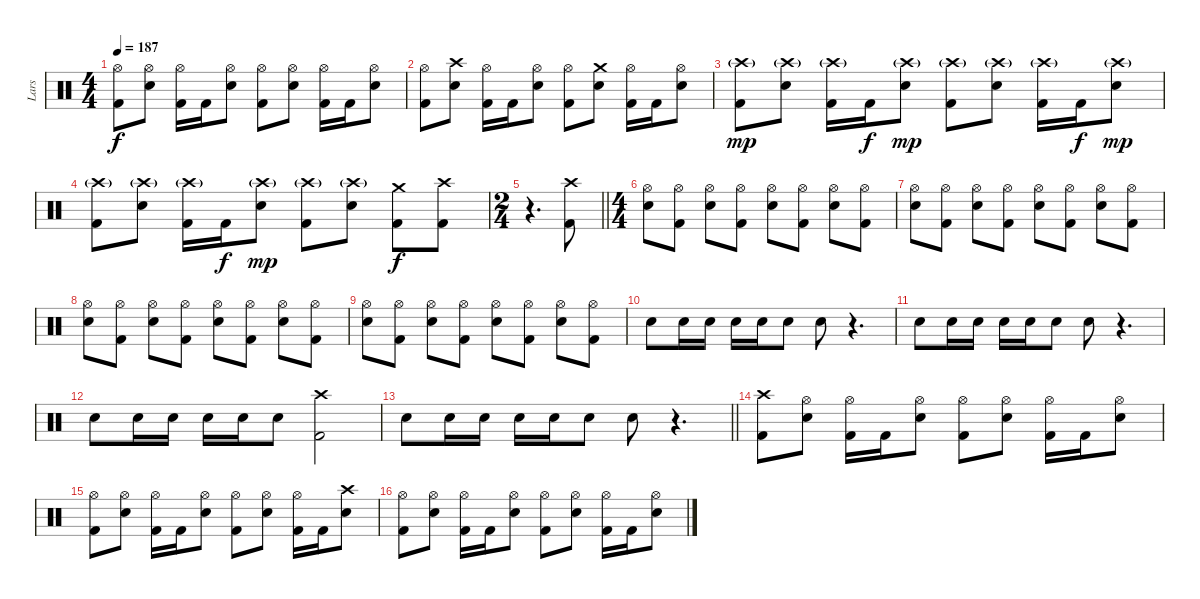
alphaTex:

\track ("Lars" "Lars") {instrument percussion}
\staff {score}
\articulation defaults
\ts (4 4)
\tempo 187
\clef neutral
\ks c
("Hi-Hat (open)" "Kick (hit) 2").8{dy f} ("Hi-Hat (open)" "Snare (hit) 2").8 ("Hi-Hat (open)" "Kick (hit) 2").16 "Kick (hit) 2".16 ("Hi-Hat (open)" "Snare (hit) 2").8 ("Hi-Hat (open)" "Kick (hit) 2").8 ("Hi-Hat (open)" "Snare (hit) 2").8 ("Hi-Hat (open)" "Kick (hit) 2").16 "Kick (hit) 2".16 ("Hi-Hat (open)" "Snare (hit) 2").8 |
("Hi-Hat (open)" "Kick (hit) 2").8 ("Crash high (hit)" "Snare (hit) 2").8 ("Hi-Hat (open)" "Kick (hit) 2").16 "Kick (hit) 2".16 ("Hi-Hat (open)" "Snare (hit) 2").8 ("Hi-Hat (open)" "Kick (hit) 2").8 ("Crash medium (hit)" "Snare (hit) 2").8 ("Hi-Hat (open)" "Kick (hit) 2").16 "Kick (hit) 2".16 ("Hi-Hat (open)" "Snare (hit) 2").8 |
("Crash high (hit)"{g} "Kick (hit) 2").8{dy mp} ("Crash high (hit)"{g} "Snare (hit) 2").8 ("Crash high (hit)"{g} "Kick (hit) 2").16 "Kick (hit) 2".16{dy f} ("Crash high (hit)"{g} "Snare (hit) 2").8{dy mp} ("Crash high (hit)"{g} "Kick (hit) 2").8 ("Crash high (hit)"{g} "Snare (hit) 2").8 ("Crash high (hit)"{g} "Kick (hit) 2").16 "Kick (hit) 2".16{dy f} ("Crash high (hit)"{g} "Snare (hit) 2").8{dy mp} |
("Crash high (hit)"{g} "Kick (hit) 2").8 ("Crash high (hit)"{g} "Snare (hit) 2").8 ("Crash high (hit)"{g} "Kick (hit) 2").16 "Kick (hit) 2".16{dy f} ("Crash high (hit)"{g} "Snare (hit) 2").8{dy mp} ("Crash high (hit)"{g} "Kick (hit) 2").8 ("Crash high (hit)"{g} "Snare (hit) 2").8 ("Crash medium (hit)" "Kick (hit) 2").8{dy f} ("Crash high (hit)" "Kick (hit) 2").8 |
\ts (2 4)
\barLineRight lightlight
r.4{d} ("Crash high (hit)" "Kick (hit) 2").8 |
\ts (4 4)
\section ("" "")
("Hi-Hat (open)" "Snare (hit) 2").8 ("Hi-Hat (open)" "Kick (hit) 2").8 ("Hi-Hat (open)" "Snare (hit) 2").8 ("Hi-Hat (open)" "Kick (hit) 2").8 ("Hi-Hat (open)" "Snare (hit) 2").8 ("Hi-Hat (open)" "Kick (hit) 2").8 ("Hi-Hat (open)" "Snare (hit) 2").8 ("Hi-Hat (open)" "Kick (hit) 2").8 |
("Hi-Hat (open)" "Snare (hit) 2").8 ("Hi-Hat (open)" "Kick (hit) 2").8 ("Hi-Hat (open)" "Snare (hit) 2").8 ("Hi-Hat (open)" "Kick (hit) 2").8 ("Hi-Hat (open)" "Snare (hit) 2").8 ("Hi-Hat (open)" "Kick (hit) 2").8 ("Hi-Hat (open)" "Snare (hit) 2").8 ("Hi-Hat (open)" "Kick (hit) 2").8 |
("Hi-Hat (open)" "Snare (hit) 2").8 ("Hi-Hat (open)" "Kick (hit) 2").8 ("Hi-Hat (open)" "Snare (hit) 2").8 ("Hi-Hat (open)" "Kick (hit) 2").8 ("Hi-Hat (open)" "Snare (hit) 2").8 ("Hi-Hat (open)" "Kick (hit) 2").8 ("Hi-Hat (open)" "Snare (hit) 2").8 ("Hi-Hat (open)" "Kick (hit) 2").8 |
("Hi-Hat (open)" "Snare (hit) 2").8 ("Hi-Hat (open)" "Kick (hit) 2").8 ("Hi-Hat (open)" "Snare (hit) 2").8 ("Hi-Hat (open)" "Kick (hit) 2").8 ("Hi-Hat (open)" "Snare (hit) 2").8 ("Hi-Hat (open)" "Kick (hit) 2").8 ("Hi-Hat (open)" "Snare (hit) 2").8 ("Hi-Hat (open)" "Kick (hit) 2").8 |
"Snare (hit) 2".8 "Snare (hit) 2".16 "Snare (hit) 2".16 "Snare (hit) 2".16 "Snare (hit) 2".16 "Snare (hit) 2".8 "Snare (hit) 2".8 r.4{d} |
"Snare (hit) 2".8 "Snare (hit) 2".16 "Snare (hit) 2".16 "Snare (hit) 2".16 "Snare (hit) 2".16 "Snare (hit) 2".8 "Snare (hit) 2".8 r.4{d} |
"Snare (hit) 2".8 "Snare (hit) 2".16 "Snare (hit) 2".16 "Snare (hit) 2".16 "Snare (hit) 2".16 "Snare (hit) 2".8 ("Crash high (hit)" "Kick (hit) 2").2 |
\barLineRight lightlight "Snare (hit) 2".8 "Snare (hit) 2".16 "Snare (hit) 2".16 "Snare (hit) 2".16 "Snare (hit) 2".16 "Snare (hit) 2".8 "Snare (hit) 2".8
r.4{d} |
\section ("" "")
("Crash high (hit)" "Kick (hit) 2").8 ("Hi-Hat (open)" "Snare (hit) 2").8 ("Hi-Hat (open)" "Kick (hit) 2").16 "Kick (hit) 2".16 ("Hi-Hat (open)" "Snare (hit) 2").8 ("Hi-Hat (open)" "Kick (hit) 2").8 ("Hi-Hat (open)" "Snare (hit) 2").8 ("Hi-Hat (open)" "Kick (hit) 2").16 "Kick (hit) 2".16 ("Hi-Hat (open)" "Snare (hit) 2").8 |
("Hi-Hat (open)" "Kick (hit) 2").8 ("Hi-Hat (open)" "Snare (hit) 2").8 ("Hi-Hat (open)" "Kick (hit) 2").16 "Kick (hit) 2".16 ("Hi-Hat (open)" "Snare (hit) 2").8 ("Hi-Hat (open)" "Kick (hit) 2").8 ("Hi-Hat (open)" "Snare (hit) 2").8 ("Hi-Hat (open)" "Kick (hit) 2").16 "Kick (hit) 2".16 ("Crash high (hit)" "Snare (hit) 2").8 |
("Hi-Hat (open)" "Kick (hit) 2").8 ("Hi-Hat (open)" "Snare (hit) 2").8 ("Hi-Hat (open)" "Kick (hit) 2").16 "Kick (hit) 2".16 ("Hi-Hat (open)" "Snare (hit) 2").8 ("Hi-Hat (open)" "Kick (hit) 2").8 ("Hi-Hat (open)" "Snare (hit) 2").8 ("Hi-Hat (open)" "Kick (hit) 2").16 "Kick (hit) 2".16 ("Hi-Hat (open)" "Snare (hit) 2").8
